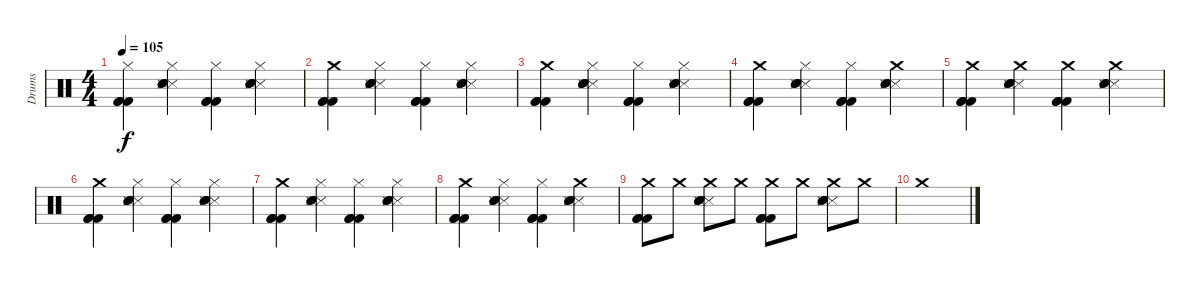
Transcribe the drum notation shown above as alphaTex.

\track ("Drums" "Drums") {instrument percussion}
\staff {score}
\articulation defaults
\ts (4 4)
\tempo 105
\clef neutral
\ks c
("Hi-Hat (closed)" "Kick (hit) 2" "Kick (hit) 2" "Kick (hit) 2").4{dy f} ("Hi-Hat (closed)" "Snare (side stick) 3" "Snare (side stick) 3" "Snare (hit) 2" "Electric Snare (hit)").4 ("Hi-Hat (closed)" "Kick (hit) 2" "Kick (hit) 2" "Kick (hit) 2").4 ("Hi-Hat (closed)" "Snare (side stick) 3" "Snare (side stick) 3" "Snare (hit) 2" "Electric Snare (hit)").4 |
("Crash medium (hit)" "Kick (hit) 2" "Kick (hit) 2" "Kick (hit) 2").4 ("Hi-Hat (closed)" "Snare (side stick) 3" "Snare (side stick) 3" "Snare (hit) 2" "Electric Snare (hit)").4 ("Hi-Hat (closed)" "Kick (hit) 2" "Kick (hit) 2" "Kick (hit) 2").4 ("Hi-Hat (closed)" "Snare (side stick) 3" "Snare (side stick) 3" "Snare (hit) 2" "Electric Snare (hit)").4 |
("Crash medium (hit)" "Kick (hit) 2" "Kick (hit) 2" "Kick (hit) 2").4 ("Hi-Hat (closed)" "Snare (side stick) 3" "Snare (side stick) 3" "Snare (hit) 2" "Electric Snare (hit)").4 ("Hi-Hat (closed)" "Kick (hit) 2" "Kick (hit) 2" "Kick (hit) 2").4 ("Hi-Hat (closed)" "Snare (side stick) 3" "Snare (side stick) 3" "Snare (hit) 2" "Electric Snare (hit)").4 |
("Crash medium (hit)" "Kick (hit) 2" "Kick (hit) 2" "Kick (hit) 2").4 ("Hi-Hat (closed)" "Snare (side stick) 3" "Snare (side stick) 3" "Snare (hit) 2" "Electric Snare (hit)").4 ("Hi-Hat (closed)" "Kick (hit) 2" "Kick (hit) 2" "Kick (hit) 2").4 ("Crash medium (hit)" "Snare (side stick) 3" "Snare (side stick) 3" "Snare (hit) 2" "Electric Snare (hit)").4 |
("Crash medium (hit)" "Kick (hit) 2" "Kick (hit) 2" "Kick (hit) 2").4 ("Crash medium (hit)" "Snare (side stick) 3" "Snare (side stick) 3" "Snare (hit) 2" "Electric Snare (hit)").4 ("Crash medium (hit)" "Kick (hit) 2" "Kick (hit) 2" "Kick (hit) 2").4 ("Crash medium (hit)" "Snare (side stick) 3" "Snare (side stick) 3" "Snare (hit) 2" "Electric Snare (hit)").4 |
("Crash medium (hit)" "Kick (hit) 2" "Kick (hit) 2" "Kick (hit) 2").4 ("Hi-Hat (closed)" "Snare (side stick) 3" "Snare (side stick) 3" "Snare (hit) 2" "Electric Snare (hit)").4 ("Hi-Hat (closed)" "Kick (hit) 2" "Kick (hit) 2" "Kick (hit) 2").4 ("Hi-Hat (closed)" "Snare (side stick) 3" "Snare (side stick) 3" "Snare (hit) 2" "Electric Snare (hit)").4 |
("Crash medium (hit)" "Kick (hit) 2" "Kick (hit) 2" "Kick (hit) 2").4 ("Hi-Hat (closed)" "Snare (side stick) 3" "Snare (side stick) 3" "Snare (hit) 2" "Electric Snare (hit)").4 ("Hi-Hat (closed)" "Kick (hit) 2" "Kick (hit) 2" "Kick (hit) 2").4 ("Hi-Hat (closed)" "Snare (side stick) 3" "Snare (side stick) 3" "Snare (hit) 2" "Electric Snare (hit)").4 |
("Crash medium (hit)" "Kick (hit) 2" "Kick (hit) 2" "Kick (hit) 2").4 ("Hi-Hat (closed)" "Snare (side stick) 3" "Snare (side stick) 3" "Snare (hit) 2" "Electric Snare (hit)").4 ("Hi-Hat (closed)" "Kick (hit) 2" "Kick (hit) 2" "Kick (hit) 2").4 ("Crash medium (hit)" "Snare (side stick) 3" "Snare (side stick) 3" "Snare (hit) 2" "Electric Snare (hit)").4 |
("Crash medium (hit)" "Kick (hit) 2" "Kick (hit) 2" "Kick (hit) 2").8 "Crash medium (hit)".8 ("Crash medium (hit)" "Snare (side stick) 3" "Snare (side stick) 3" "Snare (hit) 2" "Electric Snare (hit)").8 "Crash medium (hit)".8 ("Crash medium (hit)" "Kick (hit) 2" "Kick (hit) 2" "Kick (hit) 2").8 "Crash medium (hit)".8 ("Crash medium (hit)" "Snare (side stick) 3" "Snare (side stick) 3" "Snare (hit) 2" "Electric Snare (hit)").8 "Crash medium (hit)".8 |
"Crash medium (hit)".1
